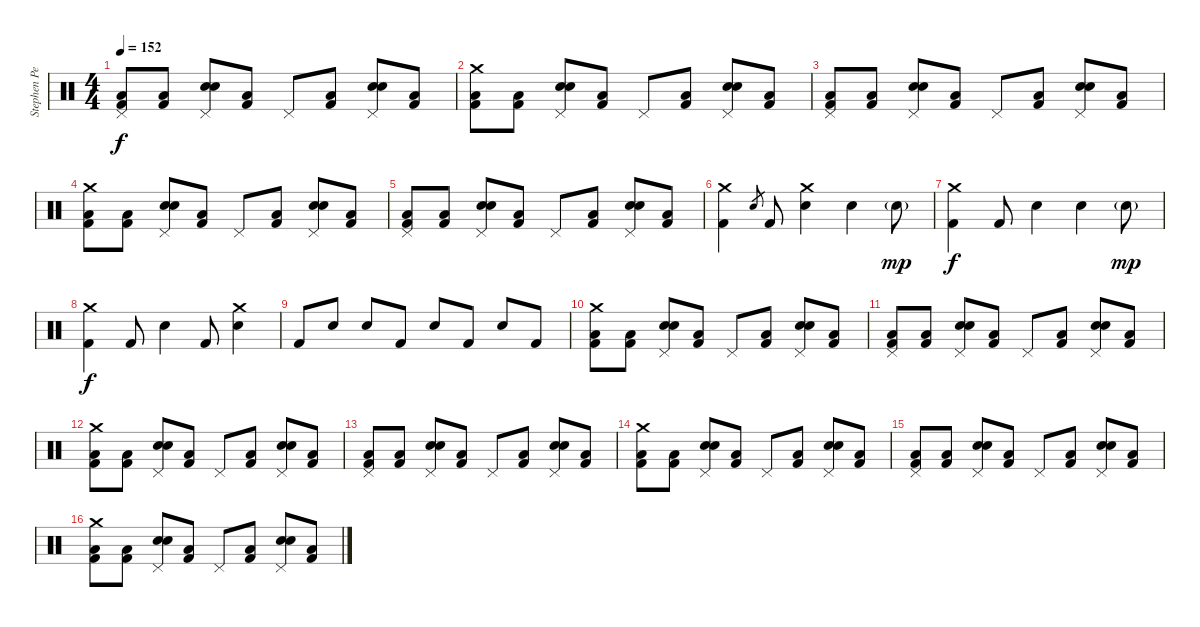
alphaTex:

\track ("Stephen Perkins (Drums)" "Stephen Pe") {instrument percussion}
\staff {score}
\articulation defaults
\ts (4 4)
\tempo 152
\clef neutral
\ks c
("Pedal Hi-Hat (hit)" "Low Floor Tom (hit)" "Kick (hit) 2").8{dy f} ("Low Floor Tom (hit)" "Kick (hit) 2").8 ("Pedal Hi-Hat (hit)" "Electric Snare (hit)" "Snare (hit) 2").8 ("Low Floor Tom (hit)" "Kick (hit) 2").8 "Pedal Hi-Hat (hit)".8 ("Low Floor Tom (hit)" "Kick (hit) 2").8 ("Pedal Hi-Hat (hit)" "Electric Snare (hit)" "Snare (hit) 2").8 ("Low Tom (hit)" "Kick (hit) 2").8 |
("Crash medium (hit)" "Low Floor Tom (hit)" "Kick (hit) 2").8 ("Low Floor Tom (hit)" "Kick (hit) 2").8 ("Pedal Hi-Hat (hit)" "Electric Snare (hit)" "Snare (hit) 2").8 ("Low Floor Tom (hit)" "Kick (hit) 2").8 "Pedal Hi-Hat (hit)".8 ("Low Floor Tom (hit)" "Kick (hit) 2").8 ("Pedal Hi-Hat (hit)" "Electric Snare (hit)" "Snare (hit) 2").8 ("Low Tom (hit)" "Kick (hit) 2").8 |
("Pedal Hi-Hat (hit)" "Low Floor Tom (hit)" "Kick (hit) 2").8 ("Low Floor Tom (hit)" "Kick (hit) 2").8 ("Pedal Hi-Hat (hit)" "Electric Snare (hit)" "Snare (hit) 2").8 ("Low Floor Tom (hit)" "Kick (hit) 2").8 "Pedal Hi-Hat (hit)".8 ("Low Floor Tom (hit)" "Kick (hit) 2").8 ("Pedal Hi-Hat (hit)" "Electric Snare (hit)" "Snare (hit) 2").8 ("Low Tom (hit)" "Kick (hit) 2").8 |
("Crash medium (hit)" "Low Floor Tom (hit)" "Kick (hit) 2").8 ("Low Floor Tom (hit)" "Kick (hit) 2").8 ("Pedal Hi-Hat (hit)" "Electric Snare (hit)" "Snare (hit) 2").8 ("Low Floor Tom (hit)" "Kick (hit) 2").8 "Pedal Hi-Hat (hit)".8 ("Low Floor Tom (hit)" "Kick (hit) 2").8 ("Pedal Hi-Hat (hit)" "Electric Snare (hit)" "Snare (hit) 2").8 ("Low Tom (hit)" "Kick (hit) 2").8 |
("Pedal Hi-Hat (hit)" "Low Floor Tom (hit)" "Kick (hit) 2").8 ("Low Floor Tom (hit)" "Kick (hit) 2").8 ("Pedal Hi-Hat (hit)" "Electric Snare (hit)" "Snare (hit) 2").8 ("Low Floor Tom (hit)" "Kick (hit) 2").8 "Pedal Hi-Hat (hit)".8 ("Low Floor Tom (hit)" "Kick (hit) 2").8 ("Pedal Hi-Hat (hit)" "Electric Snare (hit)" "Snare (hit) 2").8 ("Low Tom (hit)" "Kick (hit) 2").8 |
("Crash medium (hit)" "Kick (hit) 2").4 "Electric Snare (hit)".8{gr} "Kick (hit) 2".8 ("Crash medium (hit)" "Electric Snare (hit)").4 "Electric Snare (hit)".4 "Electric Snare (hit)"{g}.8{dy mp} |
("Crash medium (hit)" "Kick (hit) 2").4{dy f} "Kick (hit) 2".8 "Electric Snare (hit)".4 "Electric Snare (hit)".4 "Electric Snare (hit)"{g}.8{dy mp} |
("Crash medium (hit)" "Kick (hit) 2").4{dy f} "Kick (hit) 2".8 "Electric Snare (hit)".4 "Kick (hit) 2".8 ("Crash medium (hit)" "Electric Snare (hit)").4 |
"Kick (hit) 2".8 "Electric Snare (hit)".8 "Electric Snare (hit)".8 "Kick (hit) 2".8 "Electric Snare (hit)".8 "Kick (hit) 2".8 "Electric Snare (hit)".8 "Kick (hit) 2".8 |
("Crash medium (hit)" "Low Floor Tom (hit)" "Kick (hit) 2").8 ("Low Floor Tom (hit)" "Kick (hit) 2").8 ("Pedal Hi-Hat (hit)" "Electric Snare (hit)" "Snare (hit) 2").8 ("Low Floor Tom (hit)" "Kick (hit) 2").8 "Pedal Hi-Hat (hit)".8 ("Low Floor Tom (hit)" "Kick (hit) 2").8 ("Pedal Hi-Hat (hit)" "Electric Snare (hit)" "Snare (hit) 2").8 ("Low Tom (hit)" "Kick (hit) 2").8 |
("Pedal Hi-Hat (hit)" "Low Floor Tom (hit)" "Kick (hit) 2").8 ("Low Floor Tom (hit)" "Kick (hit) 2").8 ("Pedal Hi-Hat (hit)" "Electric Snare (hit)" "Snare (hit) 2").8 ("Low Floor Tom (hit)" "Kick (hit) 2").8 "Pedal Hi-Hat (hit)".8 ("Low Floor Tom (hit)" "Kick (hit) 2").8 ("Pedal Hi-Hat (hit)" "Electric Snare (hit)" "Snare (hit) 2").8 ("Low Tom (hit)" "Kick (hit) 2").8 |
("Crash medium (hit)" "Low Floor Tom (hit)" "Kick (hit) 2").8 ("Low Floor Tom (hit)" "Kick (hit) 2").8 ("Pedal Hi-Hat (hit)" "Electric Snare (hit)" "Snare (hit) 2").8 ("Low Floor Tom (hit)" "Kick (hit) 2").8 "Pedal Hi-Hat (hit)".8 ("Low Floor Tom (hit)" "Kick (hit) 2").8 ("Pedal Hi-Hat (hit)" "Electric Snare (hit)" "Snare (hit) 2").8 ("Low Tom (hit)" "Kick (hit) 2").8 |
("Pedal Hi-Hat (hit)" "Low Floor Tom (hit)" "Kick (hit) 2").8 ("Low Floor Tom (hit)" "Kick (hit) 2").8 ("Pedal Hi-Hat (hit)" "Electric Snare (hit)" "Snare (hit) 2").8 ("Low Floor Tom (hit)" "Kick (hit) 2").8 "Pedal Hi-Hat (hit)".8 ("Low Floor Tom (hit)" "Kick (hit) 2").8 ("Pedal Hi-Hat (hit)" "Electric Snare (hit)" "Snare (hit) 2").8 ("Low Tom (hit)" "Kick (hit) 2").8 |
("Crash medium (hit)" "Low Floor Tom (hit)" "Kick (hit) 2").8 ("Low Floor Tom (hit)" "Kick (hit) 2").8 ("Pedal Hi-Hat (hit)" "Electric Snare (hit)" "Snare (hit) 2").8 ("Low Floor Tom (hit)" "Kick (hit) 2").8 "Pedal Hi-Hat (hit)".8 ("Low Floor Tom (hit)" "Kick (hit) 2").8 ("Pedal Hi-Hat (hit)" "Electric Snare (hit)" "Snare (hit) 2").8 ("Low Tom (hit)" "Kick (hit) 2").8 |
("Pedal Hi-Hat (hit)" "Low Floor Tom (hit)" "Kick (hit) 2").8 ("Low Floor Tom (hit)" "Kick (hit) 2").8 ("Pedal Hi-Hat (hit)" "Electric Snare (hit)" "Snare (hit) 2").8 ("Low Floor Tom (hit)" "Kick (hit) 2").8 "Pedal Hi-Hat (hit)".8 ("Low Floor Tom (hit)" "Kick (hit) 2").8 ("Pedal Hi-Hat (hit)" "Electric Snare (hit)" "Snare (hit) 2").8 ("Low Tom (hit)" "Kick (hit) 2").8 |
("Crash medium (hit)" "Low Floor Tom (hit)" "Kick (hit) 2").8 ("Low Floor Tom (hit)" "Kick (hit) 2").8 ("Pedal Hi-Hat (hit)" "Electric Snare (hit)" "Snare (hit) 2").8 ("Low Floor Tom (hit)" "Kick (hit) 2").8 "Pedal Hi-Hat (hit)".8 ("Low Floor Tom (hit)" "Kick (hit) 2").8 ("Pedal Hi-Hat (hit)" "Electric Snare (hit)" "Snare (hit) 2").8 ("Low Tom (hit)" "Kick (hit) 2").8
